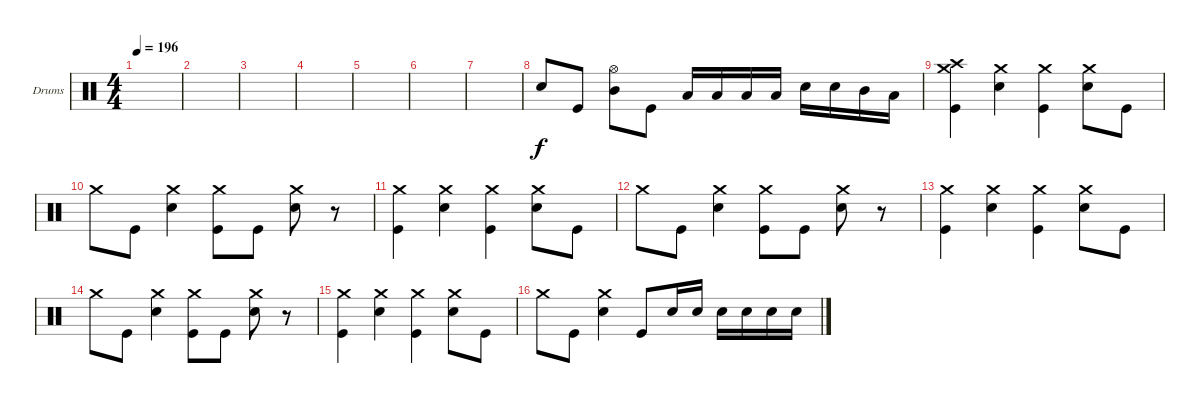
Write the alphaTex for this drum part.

\defaultSystemsLayout 4
\bracketExtendMode groupsimilarinstruments
\firstSystemTrackNameOrientation horizontal
\otherSystemsTrackNameOrientation horizontal
\track ("Drumkit" "Drums") {instrument percussion}
\staff {score}
\articulation defaults
\ts (4 4)
\tempo 196
\clef neutral
\scale
0.472222
\ks c
|
\scale
0.263889 |
\scale
0.263889 |
\scale
0.333333 |
\scale
0.333333 |
\scale
0.333333 |
|
"Snare (hit) 2".8 "Kick (hit)".8 ("Mid Tom (hit)" "Hi-Hat (open)").8 "Kick (hit)".8 "Low Tom (hit)".16 "Low Tom (hit)".16 "Low Tom (hit)".16 "Low Tom (hit)".16 "Snare (hit) 2".16 "Snare (hit) 2".16 "Mid Tom (hit)".16 "Low Tom (hit)".16 |
("Crash high (hit)" "Kick (hit)" "Crash medium (hit)").4 ("Snare (hit) 2" "Crash medium (hit)").4 ("Kick (hit)" "Crash medium (hit)").4 ("Crash medium (hit)" "Snare (hit) 2").8 "Kick (hit)".8 |
"Crash medium (hit)".8 "Kick (hit)".8 ("Snare (hit) 2" "Crash medium (hit)").4 ("Kick (hit)" "Crash medium (hit)").8 "Kick (hit)".8 ("Snare (hit) 2" "Crash medium (hit)").8 r.8 |
("Kick (hit)" "Crash medium (hit)").4 ("Snare (hit) 2" "Crash medium (hit)").4 ("Kick (hit)" "Crash medium (hit)").4 ("Snare (hit) 2" "Crash medium (hit)").8 "Kick (hit)".8 |
"Crash medium (hit)".8 "Kick (hit)".8 ("Snare (hit) 2" "Crash medium (hit)").4 ("Kick (hit)" "Crash medium (hit)").8 "Kick (hit)".8 ("Snare (hit) 2" "Crash medium (hit)").8 r.8 |
("Kick (hit)" "Crash medium (hit)").4 ("Snare (hit) 2" "Crash medium (hit)").4 ("Kick (hit)" "Crash medium (hit)").4 ("Snare (hit) 2" "Crash medium (hit)").8 "Kick (hit)".8 |
"Crash medium (hit)".8 "Kick (hit)".8 ("Snare (hit) 2" "Crash medium (hit)").4 ("Kick (hit)" "Crash medium (hit)").8 "Kick (hit)".8 ("Snare (hit) 2" "Crash medium (hit)").8 r.8 |
("Kick (hit)" "Crash medium (hit)").4 ("Snare (hit) 2" "Crash medium (hit)").4 ("Kick (hit)" "Crash medium (hit)").4 ("Snare (hit) 2" "Crash medium (hit)").8 "Kick (hit)".8 |
"Crash medium (hit)".8 "Kick (hit)".8 ("Snare (hit) 2" "Crash medium (hit)").4 "Kick (hit)".8 "Snare (hit) 2".16 "Snare (hit) 2".16 "Snare (hit) 2".16 "Snare (hit) 2".16 "Snare (hit) 2".16 "Snare (hit) 2".16
